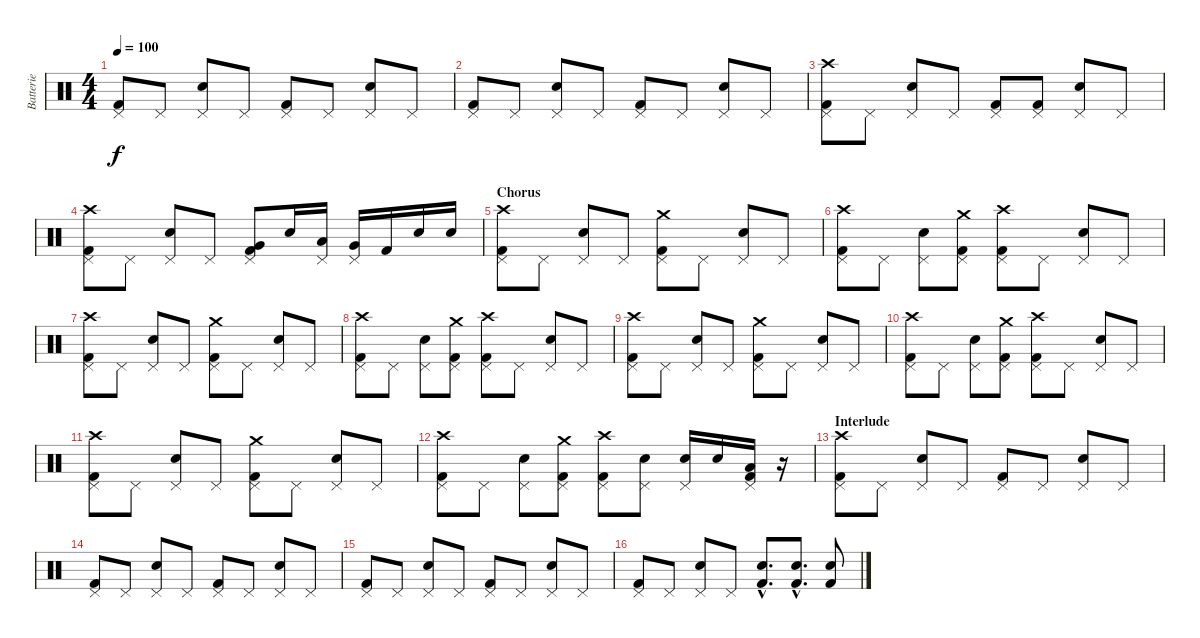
\track ("Batterie" "Batterie") {instrument percussion}
\staff {score}
\articulation defaults
\ts (4 4)
\tempo 100
\clef neutral
\ks c
("Pedal Hi-Hat (hit)" "Kick (hit) 2").8{dy f} "Pedal Hi-Hat (hit)".8 ("Pedal Hi-Hat (hit)" "Snare (hit) 2").8 "Pedal Hi-Hat (hit)".8 ("Pedal Hi-Hat (hit)" "Kick (hit) 2").8 "Pedal Hi-Hat (hit)".8 ("Pedal Hi-Hat (hit)" "Snare (hit) 2").8 "Pedal Hi-Hat (hit)".8 |
("Pedal Hi-Hat (hit)" "Kick (hit) 2").8 "Pedal Hi-Hat (hit)".8 ("Pedal Hi-Hat (hit)" "Snare (hit) 2").8 "Pedal Hi-Hat (hit)".8 ("Pedal Hi-Hat (hit)" "Kick (hit) 2").8 "Pedal Hi-Hat (hit)".8 ("Pedal Hi-Hat (hit)" "Snare (hit) 2").8 "Pedal Hi-Hat (hit)".8 |
("Pedal Hi-Hat (hit)" "Crash high (hit)" "Kick (hit) 2").8 "Pedal Hi-Hat (hit)".8 ("Pedal Hi-Hat (hit)" "Snare (hit) 2").8 "Pedal Hi-Hat (hit)".8 ("Pedal Hi-Hat (hit)" "Kick (hit) 2").8 ("Pedal Hi-Hat (hit)" "Kick (hit) 2").8 ("Pedal Hi-Hat (hit)" "Snare (hit) 2").8 "Pedal Hi-Hat (hit)".8 |
("Pedal Hi-Hat (hit)" "Crash high (hit)" "Kick (hit) 2").8 "Pedal Hi-Hat (hit)".8 ("Pedal Hi-Hat (hit)" "Snare (hit) 2").8 "Pedal Hi-Hat (hit)".8 ("Pedal Hi-Hat (hit)" "Very Low Tom (hit)" "Kick (hit) 2").8 "Snare (hit) 2".16 ("Pedal Hi-Hat (hit)" "Low Tom (hit)").16 ("Pedal Hi-Hat (hit)" "Very Low Tom (hit)").16 "Kick (hit) 2".16 "Snare (hit) 2".16 "Snare (hit) 2".16 |
\section ("" "Chorus")
("Pedal Hi-Hat (hit)" "Crash high (hit)" "Kick (hit) 2").8 "Pedal Hi-Hat (hit)".8 ("Pedal Hi-Hat (hit)" "Snare (hit) 2").8 "Pedal Hi-Hat (hit)".8 ("Pedal Hi-Hat (hit)" "Crash medium (hit)" "Kick (hit) 2").8 "Pedal Hi-Hat (hit)".8 ("Pedal Hi-Hat (hit)" "Snare (hit) 2").8 "Pedal Hi-Hat (hit)".8 |
("Pedal Hi-Hat (hit)" "Crash high (hit)" "Kick (hit) 2").8 "Pedal Hi-Hat (hit)".8 ("Pedal Hi-Hat (hit)" "Snare (hit) 2").8 ("Pedal Hi-Hat (hit)" "Crash medium (hit)" "Kick (hit) 2").8 ("Pedal Hi-Hat (hit)" "Crash high (hit)" "Kick (hit) 2").8 "Pedal Hi-Hat (hit)".8 ("Pedal Hi-Hat (hit)" "Snare (hit) 2").8 "Pedal Hi-Hat (hit)".8 |
("Pedal Hi-Hat (hit)" "Crash high (hit)" "Kick (hit) 2").8 "Pedal Hi-Hat (hit)".8 ("Pedal Hi-Hat (hit)" "Snare (hit) 2").8 "Pedal Hi-Hat (hit)".8 ("Pedal Hi-Hat (hit)" "Crash medium (hit)" "Kick (hit) 2").8 "Pedal Hi-Hat (hit)".8 ("Pedal Hi-Hat (hit)" "Snare (hit) 2").8 "Pedal Hi-Hat (hit)".8 |
("Pedal Hi-Hat (hit)" "Crash high (hit)" "Kick (hit) 2").8 "Pedal Hi-Hat (hit)".8 ("Pedal Hi-Hat (hit)" "Snare (hit) 2").8 ("Pedal Hi-Hat (hit)" "Crash medium (hit)" "Kick (hit) 2").8 ("Pedal Hi-Hat (hit)" "Crash high (hit)" "Kick (hit) 2").8 "Pedal Hi-Hat (hit)".8 ("Pedal Hi-Hat (hit)" "Snare (hit) 2").8 "Pedal Hi-Hat (hit)".8 |
("Pedal Hi-Hat (hit)" "Crash high (hit)" "Kick (hit) 2").8 "Pedal Hi-Hat (hit)".8 ("Pedal Hi-Hat (hit)" "Snare (hit) 2").8 "Pedal Hi-Hat (hit)".8 ("Pedal Hi-Hat (hit)" "Crash medium (hit)" "Kick (hit) 2").8 "Pedal Hi-Hat (hit)".8 ("Pedal Hi-Hat (hit)" "Snare (hit) 2").8 "Pedal Hi-Hat (hit)".8 |
("Pedal Hi-Hat (hit)" "Crash high (hit)" "Kick (hit) 2").8 "Pedal Hi-Hat (hit)".8 ("Pedal Hi-Hat (hit)" "Snare (hit) 2").8 ("Pedal Hi-Hat (hit)" "Crash medium (hit)" "Kick (hit) 2").8 ("Pedal Hi-Hat (hit)" "Crash high (hit)" "Kick (hit) 2").8 "Pedal Hi-Hat (hit)".8 ("Pedal Hi-Hat (hit)" "Snare (hit) 2").8 "Pedal Hi-Hat (hit)".8 |
("Pedal Hi-Hat (hit)" "Crash high (hit)" "Kick (hit) 2").8 "Pedal Hi-Hat (hit)".8 ("Pedal Hi-Hat (hit)" "Snare (hit) 2").8 "Pedal Hi-Hat (hit)".8 ("Pedal Hi-Hat (hit)" "Crash medium (hit)" "Kick (hit) 2").8 "Pedal Hi-Hat (hit)".8 ("Pedal Hi-Hat (hit)" "Snare (hit) 2").8 "Pedal Hi-Hat (hit)".8 |
("Pedal Hi-Hat (hit)" "Crash high (hit)" "Kick (hit) 2").8 "Pedal Hi-Hat (hit)".8 ("Pedal Hi-Hat (hit)" "Snare (hit) 2").8 ("Pedal Hi-Hat (hit)" "Crash medium (hit)" "Kick (hit) 2").8 ("Pedal Hi-Hat (hit)" "Crash high (hit)" "Kick (hit) 2").8 ("Pedal Hi-Hat (hit)" "Snare (hit) 2").8 ("Pedal Hi-Hat (hit)" "Snare (hit) 2").16 "Snare (hit) 2".16 ("Pedal Hi-Hat (hit)" "Low Tom (hit)" "Kick (hit) 2").16 r.16 |
\section ("" "Interlude")
("Pedal Hi-Hat (hit)" "Crash high (hit)" "Kick (hit) 2").8 "Pedal Hi-Hat (hit)".8 ("Pedal Hi-Hat (hit)" "Snare (hit) 2").8 "Pedal Hi-Hat (hit)".8 ("Pedal Hi-Hat (hit)" "Kick (hit) 2").8 "Pedal Hi-Hat (hit)".8 ("Pedal Hi-Hat (hit)" "Snare (hit) 2").8 "Pedal Hi-Hat (hit)".8 |
("Pedal Hi-Hat (hit)" "Kick (hit) 2").8 "Pedal Hi-Hat (hit)".8 ("Pedal Hi-Hat (hit)" "Snare (hit) 2").8 "Pedal Hi-Hat (hit)".8 ("Pedal Hi-Hat (hit)" "Kick (hit) 2").8 "Pedal Hi-Hat (hit)".8 ("Pedal Hi-Hat (hit)" "Snare (hit) 2").8 "Pedal Hi-Hat (hit)".8 |
("Pedal Hi-Hat (hit)" "Kick (hit) 2").8 "Pedal Hi-Hat (hit)".8 ("Pedal Hi-Hat (hit)" "Snare (hit) 2").8 "Pedal Hi-Hat (hit)".8 ("Pedal Hi-Hat (hit)" "Kick (hit) 2").8 "Pedal Hi-Hat (hit)".8 ("Pedal Hi-Hat (hit)" "Snare (hit) 2").8 "Pedal Hi-Hat (hit)".8 |
("Pedal Hi-Hat (hit)" "Kick (hit) 2").8 "Pedal Hi-Hat (hit)".8 ("Pedal Hi-Hat (hit)" "Snare (hit) 2").8 "Pedal Hi-Hat (hit)".8 ("Snare (hit) 2"{hac} "Kick (hit) 2"{hac}).8{d} ("Snare (hit) 2"{hac} "Kick (hit) 2"{hac}).8{d} ("Snare (hit) 2" "Kick (hit) 2").8
